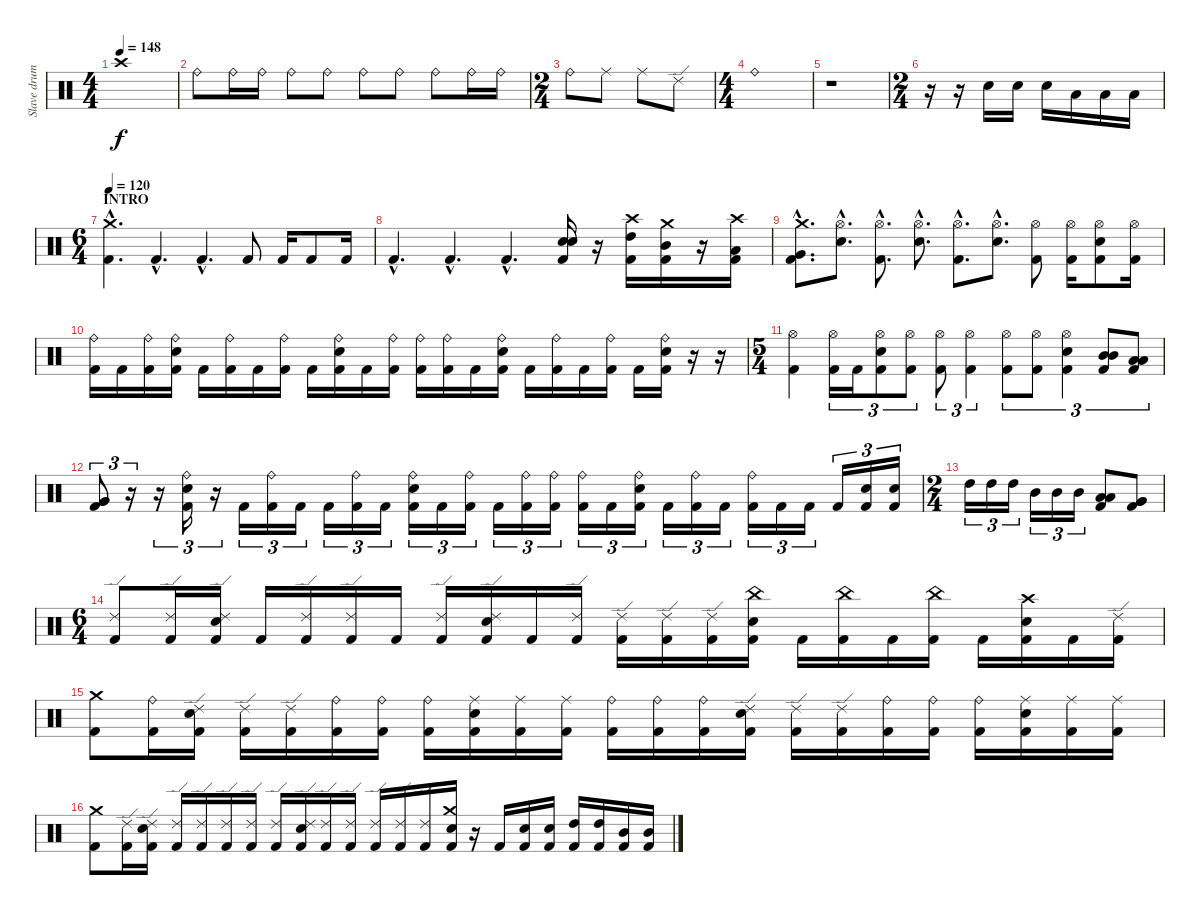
\track ("Slave drum" "Slave drum") {instrument percussion}
\staff {score}
\articulation defaults
\ts (4 4)
\tempo 148
\clef neutral
\ks c "Crash high (hit)".1{dy f}
|
"Ride (bell)".8 "Ride (bell)".16 "Ride (bell)".16 "Ride (bell)".8 "Ride (bell)".8 "Ride (bell)".8 "Ride (bell)".8 "Ride (bell)".8 "Ride (bell)".16 "Ride (bell)".16 |
\ts (2 4)
"Ride (bell)".8 "Ride (middle)".8 "Ride (middle)".8 "Ride (edge) 2".8 |
\ts (4 4)
"Ride (bell)".1 |
r.1 |
\ts (2 4)
r.16 r.16 "Electric Snare (hit)".16 "Electric Snare (hit)".16 "Electric Snare (hit)".16 "Low Tom (hit)".16 "Low Tom (hit)".16 "Low Tom (hit)".16 |
\ts (6 4)
\section ("" "INTRO")
\tempo 120
("Crash medium (hit)"{hac} "Kick (hit) 2"{hac}).4{d} "Kick (hit) 2"{hac}.4{d} "Kick (hit) 2"{hac}.4{d} "Kick (hit) 2".8 "Kick (hit) 2".16 "Kick (hit) 2".8 "Kick (hit) 2".16 |
"Kick (hit) 2"{hac}.4{d} "Kick (hit) 2"{hac}.4{d} "Kick (hit) 2"{hac}.4{d} ("Electric Snare (hit)" "Electric Snare (hit)" "Kick (hit) 2").16 r.16 ("Crash high (hit)" "High Tom (hit)" "Kick (hit) 2").16 ("Crash medium (hit)" "Mid Tom (hit)" "Kick (hit) 2").16 r.16 ("Crash high (hit)" "Low Tom (hit)" "Kick (hit) 2").16 |
("Crash medium (hit)"{hac} "Very Low Tom (hit)"{hac} "Kick (hit) 2"{hac}).8{d} ("Hi-Hat (open)"{hac} "Electric Snare (hit)"{hac}).8{d} ("Hi-Hat (open)"{hac} "Kick (hit) 2"{hac}).8{d} ("Hi-Hat (open)"{hac} "Electric Snare (hit)"{hac}).8{d} ("Hi-Hat (open)"{hac} "Kick (hit) 2"{hac}).8{d} ("Hi-Hat (open)"{hac} "Electric Snare (hit)"{hac}).8{d} ("Hi-Hat (open)" "Kick (hit) 2").8 ("Hi-Hat (open)" "Kick (hit) 2").16 ("Hi-Hat (open)" "Electric Snare (hit)" "Kick (hit) 2").8 ("Hi-Hat (open)" "Kick (hit) 2").16 |
("Ride (bell)" "Kick (hit) 2").16 "Kick (hit) 2".16 ("Ride (bell)" "Kick (hit) 2").16 ("Ride (bell)" "Electric Snare (hit)" "Kick (hit) 2").16 "Kick (hit) 2".16 ("Ride (bell)" "Kick (hit) 2").16 "Kick (hit) 2".16 ("Ride (bell)" "Kick (hit) 2").16 "Kick (hit) 2".16 ("Ride (bell)" "Electric Snare (hit)" "Kick (hit) 2").16 "Kick (hit) 2".16 ("Ride (bell)" "Kick (hit) 2").16 ("Ride (bell)" "Kick (hit) 2").16 ("Ride (bell)" "Kick (hit) 2").16 "Kick (hit) 2".16 ("Ride (bell)" "Electric Snare (hit)" "Kick (hit) 2").16 "Kick (hit) 2".16 ("Ride (bell)" "Kick (hit) 2").16 "Kick (hit) 2".16 ("Ride (bell)" "Kick (hit) 2").16 "Kick (hit) 2".16 ("Ride (bell)" "Electric Snare (hit)" "Kick (hit) 2").16 r.16 r.16 |
\ts (5 4)
("Hi-Hat (open)" "Kick (hit) 2").4 ("Hi-Hat (open)" "Kick (hit) 2").16{tu (3 2)} "Kick (hit) 2".16{tu (3 2)} ("Hi-Hat (open)" "Electric Snare (hit)" "Kick (hit) 2").8{tu (3 2)} ("Hi-Hat (open)" "Kick (hit) 2").8{tu (3 2)} ("Hi-Hat (open)" "Kick (hit) 2").8{tu (3 2)} ("Hi-Hat (open)" "Kick (hit) 2").4{tu (3 2)} ("Hi-Hat (open)" "Kick (hit) 2").8{tu (3 2)} ("Hi-Hat (open)" "Kick (hit) 2").8{tu (3 2)} ("Hi-Hat (open)" "Electric Snare (hit)" "Kick (hit) 2").4{tu (3 2)} ("Mid Tom (hit)" "Mid Tom (hit)" "Kick (hit) 2").8{tu (3 2)} ("Low Tom (hit)" "Low Tom (hit)" "Kick (hit) 2").8{tu (3 2)} |
("Very Low Tom (hit)" "Very Low Tom (hit)" "Kick (hit) 2").8{tu (3 2)} r.16{tu (3 2)} r.16{tu (3 2)} ("Ride (bell)" "Electric Snare (hit)" "Kick (hit) 2").16{tu (3 2)} r.16{tu (3 2)} "Kick (hit) 2".16{tu (3 2)} ("Ride (bell)" "Kick (hit) 2").16{tu (3 2)} "Kick (hit) 2".16{tu (3 2)} "Kick (hit) 2".16{tu (3 2)} ("Ride (bell)" "Kick (hit) 2").16{tu (3 2)} "Kick (hit) 2".16{tu (3 2)} ("Ride (bell)" "Electric Snare (hit)" "Kick (hit) 2").16{tu (3 2)} "Kick (hit) 2".16{tu (3 2)} ("Ride (bell)" "Kick (hit) 2").16{tu (3 2)} "Kick (hit) 2".16{tu (3 2)} ("Ride (bell)" "Kick (hit) 2").16{tu (3 2)} ("Ride (bell)" "Kick (hit) 2").16{tu (3 2)} ("Ride (bell)" "Kick (hit) 2").16{tu (3 2)} "Kick (hit) 2".16{tu (3 2)} ("Ride (bell)" "Electric Snare (hit)" "Kick (hit) 2").16{tu (3 2)} "Kick (hit) 2".16{tu (3 2)} ("Ride (bell)" "Kick (hit) 2").16{tu (3 2)} "Kick (hit) 2".16{tu (3 2)} ("Ride (bell)" "Kick (hit) 2").16{tu (3 2)} "Kick (hit) 2".16{tu (3 2)} "Kick (hit) 2".16{tu (3 2)} "Kick (hit) 2".16{tu (3 2)} ("Electric Snare (hit)" "Kick (hit) 2").16{tu (3 2)} ("Electric Snare (hit)" "Kick (hit) 2").16{tu (3 2)} |
\ts (2 4)
"High Tom (hit)".16{tu (3 2)} "High Tom (hit)".16{tu (3 2)} "High Tom (hit)".16{tu (3 2)} "Mid Tom (hit)".16{tu (3 2)} "Mid Tom (hit)".16{tu (3 2)} "Mid Tom (hit)".16{tu (3 2)} ("Low Tom (hit)" "Low Tom (hit)" "Kick (hit) 2").8 ("Very Low Tom (hit)" "Very Low Tom (hit)" "Kick (hit) 2").8 |
\ts (6 4)
("Ride (edge) 2" "Kick (hit) 2").8 ("Ride (edge) 2" "Kick (hit) 2").16 ("Ride (edge) 2" "Electric Snare (hit)" "Kick (hit) 2").16 "Kick (hit) 2".16 ("Ride (edge) 2" "Kick (hit) 2").16 ("Ride (edge) 2" "Kick (hit) 2").16 "Kick (hit) 2".16 ("Ride (edge) 2" "Kick (hit) 2").16 ("Ride (edge) 2" "Electric Snare (hit)" "Kick (hit) 2").16 "Kick (hit) 2".16 ("Ride (edge) 2" "Kick (hit) 2").16 ("Ride (edge) 2" "Kick (hit) 2").16 ("Ride (edge) 2" "Kick (hit) 2").16 ("Ride (edge) 2" "Kick (hit) 2").16 ("China (hit)" "Electric Snare (hit)" "Kick (hit) 2").16 "Kick (hit) 2".16 ("China (hit)" "Kick (hit) 2").16 "Kick (hit) 2".16 ("China (hit)" "Kick (hit) 2").16 "Kick (hit) 2".16 ("Crash high (hit)" "Electric Snare (hit)" "Kick (hit) 2").16 "Kick (hit) 2".16 ("Ride (edge) 2" "Kick (hit) 2").16 |
("Crash medium (hit)" "Kick (hit) 2").8 ("Ride (bell)" "Kick (hit) 2").16 ("Ride (edge) 2" "Electric Snare (hit)" "Kick (hit) 2").16 ("Ride (edge) 2" "Kick (hit) 2").16 ("Ride (edge) 2" "Kick (hit) 2").16 ("Ride (bell)" "Kick (hit) 2").16 ("Ride (bell)" "Kick (hit) 2").16 ("Ride (bell)" "Kick (hit) 2").16 ("Ride (middle)" "Electric Snare (hit)" "Kick (hit) 2").16 ("Ride (middle)" "Kick (hit) 2").16 ("Ride (middle)" "Kick (hit) 2").16 ("Ride (bell)" "Kick (hit) 2").16 ("Ride (bell)" "Kick (hit) 2").16 ("Ride (bell)" "Kick (hit) 2").16 ("Ride (edge) 2" "Electric Snare (hit)" "Kick (hit) 2").16 ("Ride (edge) 2" "Kick (hit) 2").16 ("Ride (edge) 2" "Kick (hit) 2").16 ("Ride (bell)" "Kick (hit) 2").16 ("Ride (bell)" "Kick (hit) 2").16 ("Ride (bell)" "Kick (hit) 2").16 ("Ride (middle)" "Electric Snare (hit)" "Kick (hit) 2").16 ("Ride (middle)" "Kick (hit) 2").16 ("Ride (middle)" "Kick (hit) 2").16 |
("Crash medium (hit)" "Kick (hit) 2").8 ("Ride (edge) 2" "Kick (hit) 2").16 ("Ride (edge) 2" "Electric Snare (hit)" "Kick (hit) 2").16 ("Ride (edge) 2" "Kick (hit) 2").16 ("Ride (edge) 2" "Kick (hit) 2").16 ("Ride (edge) 2" "Kick (hit) 2").16 ("Ride (edge) 2" "Kick (hit) 2").16 ("Ride (edge) 2" "Kick (hit) 2").16 ("Ride (edge) 2" "Electric Snare (hit)" "Kick (hit) 2").16 ("Ride (edge) 2" "Kick (hit) 2").16 ("Ride (edge) 2" "Kick (hit) 2").16 ("Ride (edge) 2" "Kick (hit) 2").16 ("Ride (edge) 2" "Kick (hit) 2").16 ("Ride (edge) 2" "Kick (hit) 2").16 ("Crash medium (hit)" "Electric Snare (hit)" "Kick (hit) 2").16 r.16 "Kick (hit) 2".16 ("Electric Snare (hit)" "Kick (hit) 2").16 ("Electric Snare (hit)" "Kick (hit) 2").16 ("High Tom (hit)" "Kick (hit) 2").16 ("High Tom (hit)" "Kick (hit) 2").16 ("Mid Tom (hit)" "Kick (hit) 2").16 ("Mid Tom (hit)" "Kick (hit) 2").16
